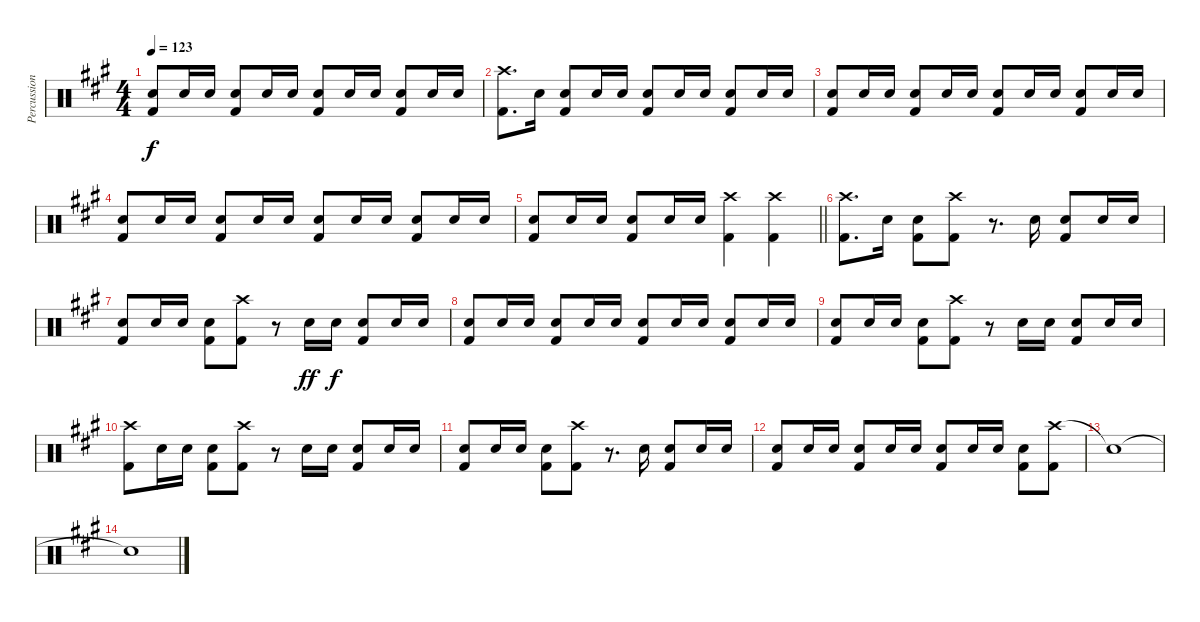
\track ("Percussion" "Percussion") {instrument percussion}
\staff {score}
\articulation defaults
\ts (4 4)
\tempo 123
\clef neutral
\ks a
("Snare (hit) 2" "Kick (hit) 2").8{dy f} "Snare (hit) 2".16 "Snare (hit) 2".16 ("Snare (hit) 2" "Kick (hit) 2").8 "Snare (hit) 2".16 "Snare (hit) 2".16 ("Snare (hit) 2" "Kick (hit) 2").8 "Snare (hit) 2".16 "Snare (hit) 2".16 ("Snare (hit) 2" "Kick (hit) 2").8 "Snare (hit) 2".16 "Snare (hit) 2".16 |
("Crash high (hit)" "Kick (hit) 2").8{d} "Snare (hit) 2".16 ("Snare (hit) 2" "Kick (hit) 2").8 "Snare (hit) 2".16 "Snare (hit) 2".16 ("Snare (hit) 2" "Kick (hit) 2").8 "Snare (hit) 2".16 "Snare (hit) 2".16 ("Snare (hit) 2" "Kick (hit) 2").8 "Snare (hit) 2".16 "Snare (hit) 2".16 |
("Snare (hit) 2" "Kick (hit) 2").8 "Snare (hit) 2".16 "Snare (hit) 2".16 ("Snare (hit) 2" "Kick (hit) 2").8 "Snare (hit) 2".16 "Snare (hit) 2".16 ("Snare (hit) 2" "Kick (hit) 2").8 "Snare (hit) 2".16 "Snare (hit) 2".16 ("Snare (hit) 2" "Kick (hit) 2").8 "Snare (hit) 2".16 "Snare (hit) 2".16 |
("Snare (hit) 2" "Kick (hit) 2").8 "Snare (hit) 2".16 "Snare (hit) 2".16 ("Snare (hit) 2" "Kick (hit) 2").8 "Snare (hit) 2".16 "Snare (hit) 2".16 ("Snare (hit) 2" "Kick (hit) 2").8 "Snare (hit) 2".16 "Snare (hit) 2".16 ("Snare (hit) 2" "Kick (hit) 2").8 "Snare (hit) 2".16 "Snare (hit) 2".16 |
\barLineRight lightlight
("Snare (hit) 2" "Kick (hit) 2").8 "Snare (hit) 2".16 "Snare (hit) 2".16 ("Snare (hit) 2" "Kick (hit) 2").8 "Snare (hit) 2".16 "Snare (hit) 2".16 ("Crash high (hit)" "Kick (hit) 2").4 ("Crash high (hit)" "Kick (hit) 2").4 |
("Crash high (hit)" "Kick (hit) 2").8{d} "Snare (hit) 2".16 ("Snare (hit) 2" "Kick (hit) 2").8 ("Crash high (hit)" "Kick (hit) 2").8 r.8{d} "Snare (hit) 2".16 ("Snare (hit) 2" "Kick (hit) 2").8 "Snare (hit) 2".16 "Snare (hit) 2".16 |
("Snare (hit) 2" "Kick (hit) 2").8 "Snare (hit) 2".16 "Snare (hit) 2".16 ("Snare (hit) 2" "Kick (hit) 2").8 ("Crash high (hit)" "Kick (hit) 2").8 r.8 "Snare (hit) 2".16{dy ff} "Snare (hit) 2".16{dy f} ("Snare (hit) 2" "Kick (hit) 2").8 "Snare (hit) 2".16 "Snare (hit) 2".16 |
("Snare (hit) 2" "Kick (hit) 2").8 "Snare (hit) 2".16 "Snare (hit) 2".16 ("Snare (hit) 2" "Kick (hit) 2").8 "Snare (hit) 2".16 "Snare (hit) 2".16 ("Snare (hit) 2" "Kick (hit) 2").8 "Snare (hit) 2".16 "Snare (hit) 2".16 ("Snare (hit) 2" "Kick (hit) 2").8 "Snare (hit) 2".16 "Snare (hit) 2".16 |
("Snare (hit) 2" "Kick (hit) 2").8 "Snare (hit) 2".16 "Snare (hit) 2".16 ("Snare (hit) 2" "Kick (hit) 2").8 ("Crash high (hit)" "Kick (hit) 2").8 r.8 "Snare (hit) 2".16 "Snare (hit) 2".16 ("Snare (hit) 2" "Kick (hit) 2").8 "Snare (hit) 2".16 "Snare (hit) 2".16 |
("Crash high (hit)" "Kick (hit) 2").8 "Snare (hit) 2".16 "Snare (hit) 2".16 ("Snare (hit) 2" "Kick (hit) 2").8 ("Crash high (hit)" "Kick (hit) 2").8 r.8 "Snare (hit) 2".16 "Snare (hit) 2".16 ("Snare (hit) 2" "Kick (hit) 2").8 "Snare (hit) 2".16 "Snare (hit) 2".16 |
("Snare (hit) 2" "Kick (hit) 2").8 "Snare (hit) 2".16 "Snare (hit) 2".16 ("Snare (hit) 2" "Kick (hit) 2").8 ("Crash high (hit)" "Kick (hit) 2").8 r.8{d} "Snare (hit) 2".16 ("Snare (hit) 2" "Kick (hit) 2").8 "Snare (hit) 2".16 "Snare (hit) 2".16 |
("Snare (hit) 2" "Kick (hit) 2").8 "Snare (hit) 2".16 "Snare (hit) 2".16 ("Snare (hit) 2" "Kick (hit) 2").8 "Snare (hit) 2".16 "Snare (hit) 2".16 ("Snare (hit) 2" "Kick (hit) 2").8 "Snare (hit) 2".16 "Snare (hit) 2".16 ("Snare (hit) 2" "Kick (hit) 2").8 ("Crash high (hit)" "Kick (hit) 2").8 |
"Snare (hit)"{t}.1 |
"Snare (hit)"{t}.1
